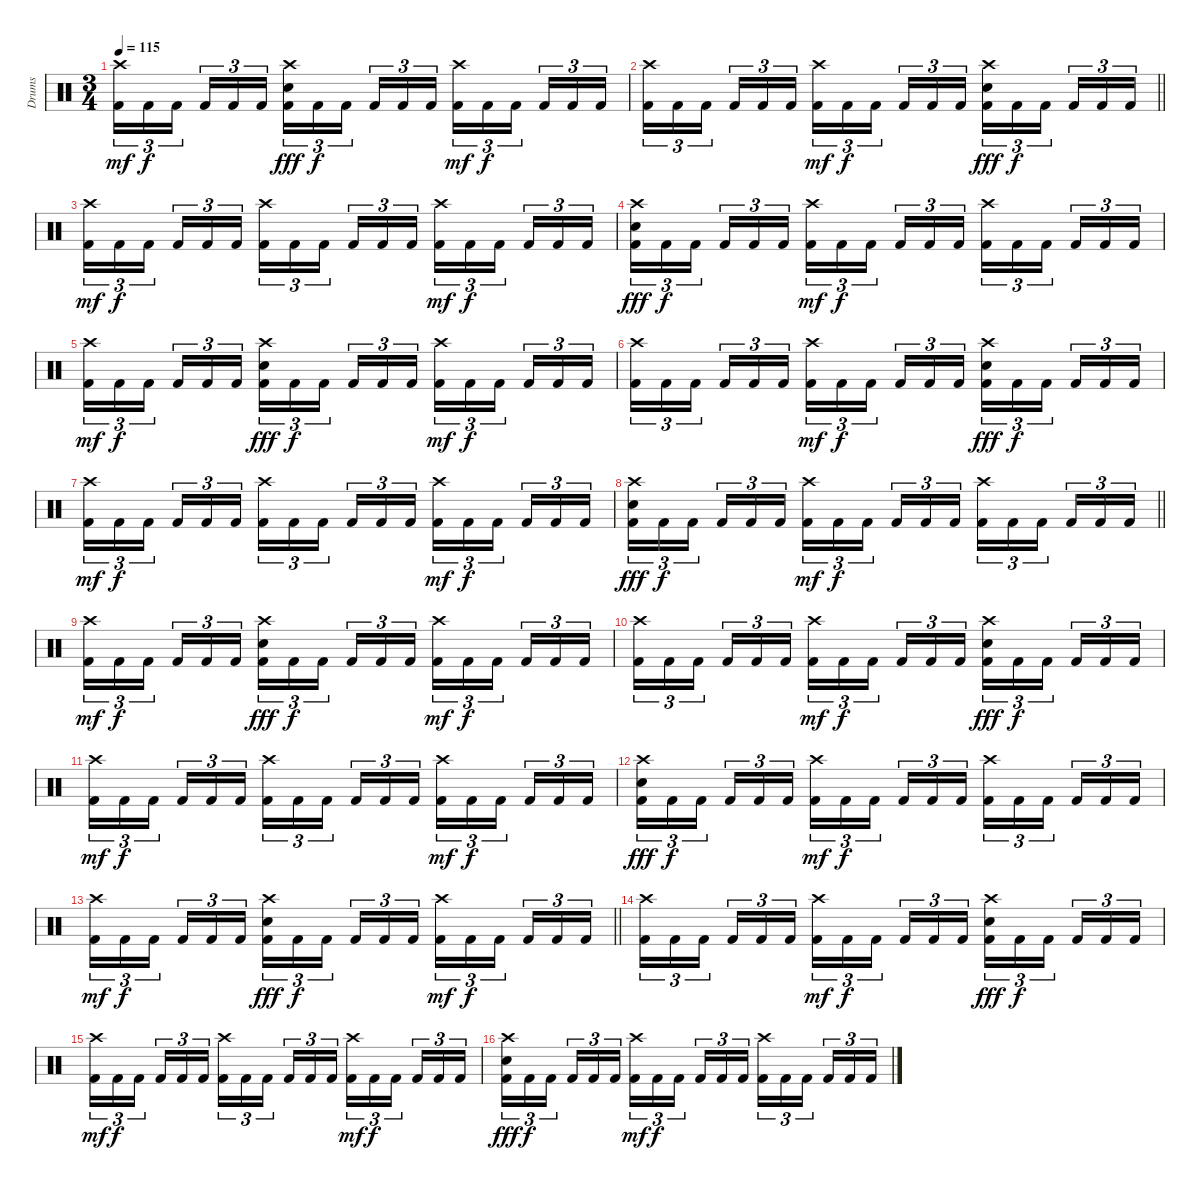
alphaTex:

\track ("Drums" "Drums") {instrument percussion}
\staff {score}
\articulation defaults
\ts (3 4)
\tempo 115
\clef neutral
\ks c
("Crash high (hit)" "Kick (hit) 2").16{tu (3 2) dy mf} "Kick (hit) 2".16{tu (3 2) dy f} "Kick (hit) 2".16{tu (3 2) beam splitsecondary} "Kick (hit) 2".16{tu (3 2)} "Kick (hit) 2".16{tu (3 2)} "Kick (hit) 2".16{tu (3 2)} ("Crash high (hit)" "Snare (hit) 2" "Kick (hit) 2").16{tu (3 2) dy fff} "Kick (hit) 2".16{tu (3 2) dy f} "Kick (hit) 2".16{tu (3 2) beam splitsecondary} "Kick (hit) 2".16{tu (3 2)} "Kick (hit) 2".16{tu (3 2)} "Kick (hit) 2".16{tu (3 2)} ("Crash high (hit)" "Kick (hit) 2").16{tu (3 2) dy mf} "Kick (hit) 2".16{tu (3 2) dy f} "Kick (hit) 2".16{tu (3 2) beam splitsecondary} "Kick (hit) 2".16{tu (3 2)} "Kick (hit) 2".16{tu (3 2)} "Kick (hit) 2".16{tu (3 2)} |
\barLineRight lightlight
("Crash high (hit)" "Kick (hit) 2").16{tu (3 2)} "Kick (hit) 2".16{tu (3 2)} "Kick (hit) 2".16{tu (3 2) beam splitsecondary} "Kick (hit) 2".16{tu (3 2)} "Kick (hit) 2".16{tu (3 2)} "Kick (hit) 2".16{tu (3 2)} ("Crash high (hit)" "Kick (hit) 2").16{tu (3 2) dy mf} "Kick (hit) 2".16{tu (3 2) dy f} "Kick (hit) 2".16{tu (3 2) beam splitsecondary} "Kick (hit) 2".16{tu (3 2)} "Kick (hit) 2".16{tu (3 2)} "Kick (hit) 2".16{tu (3 2)} ("Crash high (hit)" "Snare (hit) 2" "Kick (hit) 2").16{tu (3 2) dy fff} "Kick (hit) 2".16{tu (3 2) dy f} "Kick (hit) 2".16{tu (3 2) beam splitsecondary} "Kick (hit) 2".16{tu (3 2)} "Kick (hit) 2".16{tu (3 2)} "Kick (hit) 2".16{tu (3 2)} |
("Crash high (hit)" "Kick (hit) 2").16{tu (3 2) dy mf} "Kick (hit) 2".16{tu (3 2) dy f} "Kick (hit) 2".16{tu (3 2) beam splitsecondary} "Kick (hit) 2".16{tu (3 2)} "Kick (hit) 2".16{tu (3 2)} "Kick (hit) 2".16{tu (3 2)} ("Crash high (hit)" "Kick (hit) 2").16{tu (3 2)} "Kick (hit) 2".16{tu (3 2)} "Kick (hit) 2".16{tu (3 2) beam splitsecondary} "Kick (hit) 2".16{tu (3 2)} "Kick (hit) 2".16{tu (3 2)} "Kick (hit) 2".16{tu (3 2)} ("Crash high (hit)" "Kick (hit) 2").16{tu (3 2) dy mf} "Kick (hit) 2".16{tu (3 2) dy f} "Kick (hit) 2".16{tu (3 2) beam splitsecondary} "Kick (hit) 2".16{tu (3 2)} "Kick (hit) 2".16{tu (3 2)} "Kick (hit) 2".16{tu (3 2)} |
("Crash high (hit)" "Snare (hit) 2" "Kick (hit) 2").16{tu (3 2) dy fff} "Kick (hit) 2".16{tu (3 2) dy f} "Kick (hit) 2".16{tu (3 2) beam splitsecondary} "Kick (hit) 2".16{tu (3 2)} "Kick (hit) 2".16{tu (3 2)} "Kick (hit) 2".16{tu (3 2)} ("Crash high (hit)" "Kick (hit) 2").16{tu (3 2) dy mf} "Kick (hit) 2".16{tu (3 2) dy f} "Kick (hit) 2".16{tu (3 2) beam splitsecondary} "Kick (hit) 2".16{tu (3 2)} "Kick (hit) 2".16{tu (3 2)} "Kick (hit) 2".16{tu (3 2)} ("Crash high (hit)" "Kick (hit) 2").16{tu (3 2)} "Kick (hit) 2".16{tu (3 2)} "Kick (hit) 2".16{tu (3 2) beam splitsecondary} "Kick (hit) 2".16{tu (3 2)} "Kick (hit) 2".16{tu (3 2)} "Kick (hit) 2".16{tu (3 2)} |
("Crash high (hit)" "Kick (hit) 2").16{tu (3 2) dy mf} "Kick (hit) 2".16{tu (3 2) dy f} "Kick (hit) 2".16{tu (3 2) beam splitsecondary} "Kick (hit) 2".16{tu (3 2)} "Kick (hit) 2".16{tu (3 2)} "Kick (hit) 2".16{tu (3 2)} ("Crash high (hit)" "Snare (hit) 2" "Kick (hit) 2").16{tu (3 2) dy fff} "Kick (hit) 2".16{tu (3 2) dy f} "Kick (hit) 2".16{tu (3 2) beam splitsecondary} "Kick (hit) 2".16{tu (3 2)} "Kick (hit) 2".16{tu (3 2)} "Kick (hit) 2".16{tu (3 2)} ("Crash high (hit)" "Kick (hit) 2").16{tu (3 2) dy mf} "Kick (hit) 2".16{tu (3 2) dy f} "Kick (hit) 2".16{tu (3 2) beam splitsecondary} "Kick (hit) 2".16{tu (3 2)} "Kick (hit) 2".16{tu (3 2)} "Kick (hit) 2".16{tu (3 2)} |
("Crash high (hit)" "Kick (hit) 2").16{tu (3 2)} "Kick (hit) 2".16{tu (3 2)} "Kick (hit) 2".16{tu (3 2) beam splitsecondary} "Kick (hit) 2".16{tu (3 2)} "Kick (hit) 2".16{tu (3 2)} "Kick (hit) 2".16{tu (3 2)} ("Crash high (hit)" "Kick (hit) 2").16{tu (3 2) dy mf} "Kick (hit) 2".16{tu (3 2) dy f} "Kick (hit) 2".16{tu (3 2) beam splitsecondary} "Kick (hit) 2".16{tu (3 2)} "Kick (hit) 2".16{tu (3 2)} "Kick (hit) 2".16{tu (3 2)} ("Crash high (hit)" "Snare (hit) 2" "Kick (hit) 2").16{tu (3 2) dy fff} "Kick (hit) 2".16{tu (3 2) dy f} "Kick (hit) 2".16{tu (3 2) beam splitsecondary} "Kick (hit) 2".16{tu (3 2)} "Kick (hit) 2".16{tu (3 2)} "Kick (hit) 2".16{tu (3 2)} |
("Crash high (hit)" "Kick (hit) 2").16{tu (3 2) dy mf} "Kick (hit) 2".16{tu (3 2) dy f} "Kick (hit) 2".16{tu (3 2) beam splitsecondary} "Kick (hit) 2".16{tu (3 2)} "Kick (hit) 2".16{tu (3 2)} "Kick (hit) 2".16{tu (3 2)} ("Crash high (hit)" "Kick (hit) 2").16{tu (3 2)} "Kick (hit) 2".16{tu (3 2)} "Kick (hit) 2".16{tu (3 2) beam splitsecondary} "Kick (hit) 2".16{tu (3 2)} "Kick (hit) 2".16{tu (3 2)} "Kick (hit) 2".16{tu (3 2)} ("Crash high (hit)" "Kick (hit) 2").16{tu (3 2) dy mf} "Kick (hit) 2".16{tu (3 2) dy f} "Kick (hit) 2".16{tu (3 2) beam splitsecondary} "Kick (hit) 2".16{tu (3 2)} "Kick (hit) 2".16{tu (3 2)} "Kick (hit) 2".16{tu (3 2)} |
\barLineRight lightlight
("Crash high (hit)" "Snare (hit) 2" "Kick (hit) 2").16{tu (3 2) dy fff} "Kick (hit) 2".16{tu (3 2) dy f} "Kick (hit) 2".16{tu (3 2) beam splitsecondary} "Kick (hit) 2".16{tu (3 2)} "Kick (hit) 2".16{tu (3 2)} "Kick (hit) 2".16{tu (3 2)} ("Crash high (hit)" "Kick (hit) 2").16{tu (3 2) dy mf} "Kick (hit) 2".16{tu (3 2) dy f} "Kick (hit) 2".16{tu (3 2) beam splitsecondary} "Kick (hit) 2".16{tu (3 2)} "Kick (hit) 2".16{tu (3 2)} "Kick (hit) 2".16{tu (3 2)} ("Crash high (hit)" "Kick (hit) 2").16{tu (3 2)} "Kick (hit) 2".16{tu (3 2)} "Kick (hit) 2".16{tu (3 2) beam splitsecondary} "Kick (hit) 2".16{tu (3 2)} "Kick (hit) 2".16{tu (3 2)} "Kick (hit) 2".16{tu (3 2)} |
("Crash high (hit)" "Kick (hit) 2").16{tu (3 2) dy mf} "Kick (hit) 2".16{tu (3 2) dy f} "Kick (hit) 2".16{tu (3 2) beam splitsecondary} "Kick (hit) 2".16{tu (3 2)} "Kick (hit) 2".16{tu (3 2)} "Kick (hit) 2".16{tu (3 2)} ("Crash high (hit)" "Snare (hit) 2" "Kick (hit) 2").16{tu (3 2) dy fff} "Kick (hit) 2".16{tu (3 2) dy f} "Kick (hit) 2".16{tu (3 2) beam splitsecondary} "Kick (hit) 2".16{tu (3 2)} "Kick (hit) 2".16{tu (3 2)} "Kick (hit) 2".16{tu (3 2)} ("Crash high (hit)" "Kick (hit) 2").16{tu (3 2) dy mf} "Kick (hit) 2".16{tu (3 2) dy f} "Kick (hit) 2".16{tu (3 2) beam splitsecondary} "Kick (hit) 2".16{tu (3 2)} "Kick (hit) 2".16{tu (3 2)} "Kick (hit) 2".16{tu (3 2)} |
("Crash high (hit)" "Kick (hit) 2").16{tu (3 2)} "Kick (hit) 2".16{tu (3 2)} "Kick (hit) 2".16{tu (3 2) beam splitsecondary} "Kick (hit) 2".16{tu (3 2)} "Kick (hit) 2".16{tu (3 2)} "Kick (hit) 2".16{tu (3 2)} ("Crash high (hit)" "Kick (hit) 2").16{tu (3 2) dy mf} "Kick (hit) 2".16{tu (3 2) dy f} "Kick (hit) 2".16{tu (3 2) beam splitsecondary} "Kick (hit) 2".16{tu (3 2)} "Kick (hit) 2".16{tu (3 2)} "Kick (hit) 2".16{tu (3 2)} ("Crash high (hit)" "Snare (hit) 2" "Kick (hit) 2").16{tu (3 2) dy fff} "Kick (hit) 2".16{tu (3 2) dy f} "Kick (hit) 2".16{tu (3 2) beam splitsecondary} "Kick (hit) 2".16{tu (3 2)} "Kick (hit) 2".16{tu (3 2)} "Kick (hit) 2".16{tu (3 2)} |
("Crash high (hit)" "Kick (hit) 2").16{tu (3 2) dy mf} "Kick (hit) 2".16{tu (3 2) dy f} "Kick (hit) 2".16{tu (3 2) beam splitsecondary} "Kick (hit) 2".16{tu (3 2)} "Kick (hit) 2".16{tu (3 2)} "Kick (hit) 2".16{tu (3 2)} ("Crash high (hit)" "Kick (hit) 2").16{tu (3 2)} "Kick (hit) 2".16{tu (3 2)} "Kick (hit) 2".16{tu (3 2) beam splitsecondary} "Kick (hit) 2".16{tu (3 2)} "Kick (hit) 2".16{tu (3 2)} "Kick (hit) 2".16{tu (3 2)} ("Crash high (hit)" "Kick (hit) 2").16{tu (3 2) dy mf} "Kick (hit) 2".16{tu (3 2) dy f} "Kick (hit) 2".16{tu (3 2) beam splitsecondary} "Kick (hit) 2".16{tu (3 2)} "Kick (hit) 2".16{tu (3 2)} "Kick (hit) 2".16{tu (3 2)} |
("Crash high (hit)" "Snare (hit) 2" "Kick (hit) 2").16{tu (3 2) dy fff} "Kick (hit) 2".16{tu (3 2) dy f} "Kick (hit) 2".16{tu (3 2) beam splitsecondary} "Kick (hit) 2".16{tu (3 2)} "Kick (hit) 2".16{tu (3 2)} "Kick (hit) 2".16{tu (3 2)} ("Crash high (hit)" "Kick (hit) 2").16{tu (3 2) dy mf} "Kick (hit) 2".16{tu (3 2) dy f} "Kick (hit) 2".16{tu (3 2) beam splitsecondary} "Kick (hit) 2".16{tu (3 2)} "Kick (hit) 2".16{tu (3 2)} "Kick (hit) 2".16{tu (3 2)} ("Crash high (hit)" "Kick (hit) 2").16{tu (3 2)} "Kick (hit) 2".16{tu (3 2)} "Kick (hit) 2".16{tu (3 2) beam splitsecondary} "Kick (hit) 2".16{tu (3 2)} "Kick (hit) 2".16{tu (3 2)} "Kick (hit) 2".16{tu (3 2)} |
\barLineRight lightlight
("Crash high (hit)" "Kick (hit) 2").16{tu (3 2) dy mf} "Kick (hit) 2".16{tu (3 2) dy f} "Kick (hit) 2".16{tu (3 2) beam splitsecondary} "Kick (hit) 2".16{tu (3 2)} "Kick (hit) 2".16{tu (3 2)} "Kick (hit) 2".16{tu (3 2)} ("Crash high (hit)" "Snare (hit) 2" "Kick (hit) 2").16{tu (3 2) dy fff} "Kick (hit) 2".16{tu (3 2) dy f} "Kick (hit) 2".16{tu (3 2) beam splitsecondary} "Kick (hit) 2".16{tu (3 2)} "Kick (hit) 2".16{tu (3 2)} "Kick (hit) 2".16{tu (3 2)} ("Crash high (hit)" "Kick (hit) 2").16{tu (3 2) dy mf} "Kick (hit) 2".16{tu (3 2) dy f} "Kick (hit) 2".16{tu (3 2) beam splitsecondary} "Kick (hit) 2".16{tu (3 2)} "Kick (hit) 2".16{tu (3 2)} "Kick (hit) 2".16{tu (3 2)} |
("Crash high (hit)" "Kick (hit) 2").16{tu (3 2)} "Kick (hit) 2".16{tu (3 2)} "Kick (hit) 2".16{tu (3 2) beam splitsecondary} "Kick (hit) 2".16{tu (3 2)} "Kick (hit) 2".16{tu (3 2)} "Kick (hit) 2".16{tu (3 2)} ("Crash high (hit)" "Kick (hit) 2").16{tu (3 2) dy mf} "Kick (hit) 2".16{tu (3 2) dy f} "Kick (hit) 2".16{tu (3 2) beam splitsecondary} "Kick (hit) 2".16{tu (3 2)} "Kick (hit) 2".16{tu (3 2)} "Kick (hit) 2".16{tu (3 2)} ("Crash high (hit)" "Snare (hit) 2" "Kick (hit) 2").16{tu (3 2) dy fff} "Kick (hit) 2".16{tu (3 2) dy f} "Kick (hit) 2".16{tu (3 2) beam splitsecondary} "Kick (hit) 2".16{tu (3 2)} "Kick (hit) 2".16{tu (3 2)} "Kick (hit) 2".16{tu (3 2)} |
("Crash high (hit)" "Kick (hit) 2").16{tu (3 2) dy mf} "Kick (hit) 2".16{tu (3 2) dy f} "Kick (hit) 2".16{tu (3 2) beam splitsecondary} "Kick (hit) 2".16{tu (3 2)} "Kick (hit) 2".16{tu (3 2)} "Kick (hit) 2".16{tu (3 2)} ("Crash high (hit)" "Kick (hit) 2").16{tu (3 2)} "Kick (hit) 2".16{tu (3 2)} "Kick (hit) 2".16{tu (3 2) beam splitsecondary} "Kick (hit) 2".16{tu (3 2)} "Kick (hit) 2".16{tu (3 2)} "Kick (hit) 2".16{tu (3 2)} ("Crash high (hit)" "Kick (hit) 2").16{tu (3 2) dy mf} "Kick (hit) 2".16{tu (3 2) dy f} "Kick (hit) 2".16{tu (3 2) beam splitsecondary} "Kick (hit) 2".16{tu (3 2)} "Kick (hit) 2".16{tu (3 2)} "Kick (hit) 2".16{tu (3 2)} |
("Crash high (hit)" "Snare (hit) 2" "Kick (hit) 2").16{tu (3 2) dy fff} "Kick (hit) 2".16{tu (3 2) dy f} "Kick (hit) 2".16{tu (3 2) beam splitsecondary} "Kick (hit) 2".16{tu (3 2)} "Kick (hit) 2".16{tu (3 2)} "Kick (hit) 2".16{tu (3 2)} ("Crash high (hit)" "Kick (hit) 2").16{tu (3 2) dy mf} "Kick (hit) 2".16{tu (3 2) dy f} "Kick (hit) 2".16{tu (3 2) beam splitsecondary} "Kick (hit) 2".16{tu (3 2)} "Kick (hit) 2".16{tu (3 2)} "Kick (hit) 2".16{tu (3 2)} ("Crash high (hit)" "Kick (hit) 2").16{tu (3 2)} "Kick (hit) 2".16{tu (3 2)} "Kick (hit) 2".16{tu (3 2) beam splitsecondary} "Kick (hit) 2".16{tu (3 2)} "Kick (hit) 2".16{tu (3 2)} "Kick (hit) 2".16{tu (3 2)}
